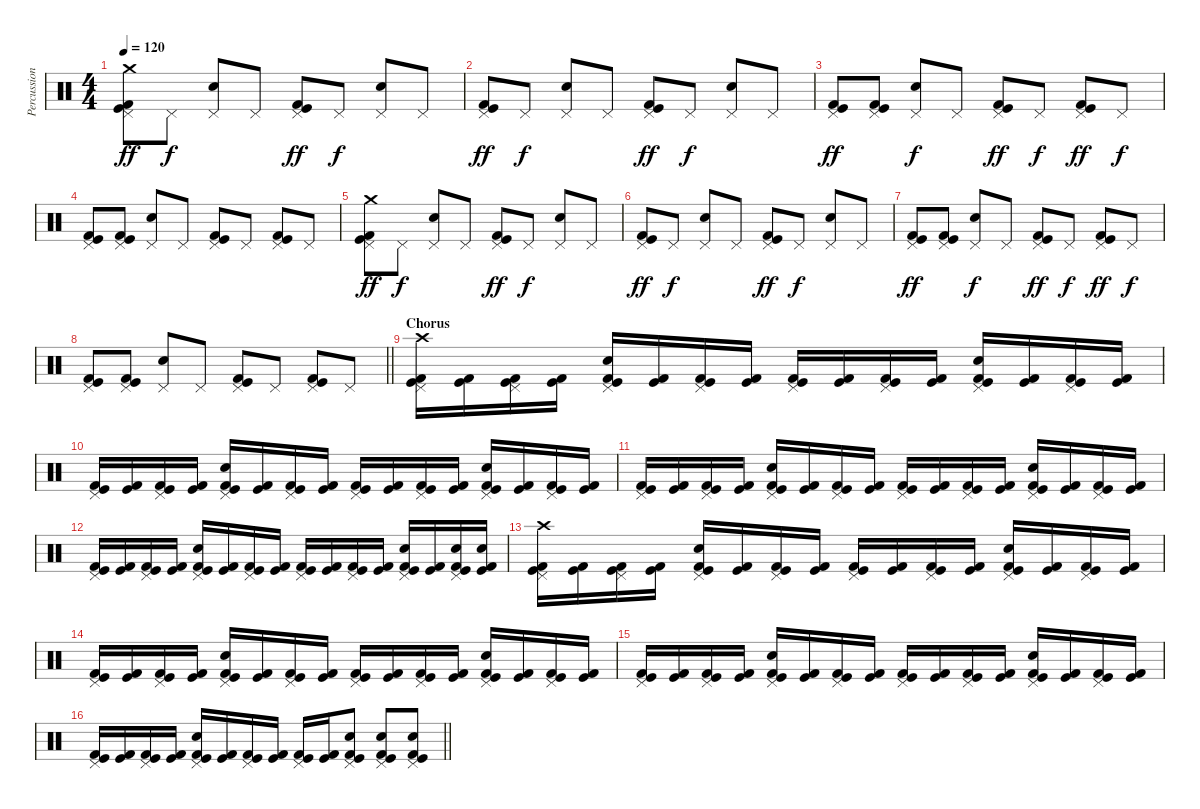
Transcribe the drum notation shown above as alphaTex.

\track ("Percussion" "Percussion") {instrument percussion}
\staff {score}
\articulation defaults
\ts (4 4)
\tempo 120
\clef neutral
\ks c
("Crash medium (hit)" "Pedal Hi-Hat (hit)" "Kick (hit)" "Kick (hit) 2").8{dy ff} "Pedal Hi-Hat (hit)".8{dy f} ("Pedal Hi-Hat (hit)" "Electric Snare (hit)").8 "Pedal Hi-Hat (hit)".8 ("Pedal Hi-Hat (hit)" "Kick (hit)" "Kick (hit) 2").8{dy ff} "Pedal Hi-Hat (hit)".8{dy f} ("Pedal Hi-Hat (hit)" "Electric Snare (hit)").8 "Pedal Hi-Hat (hit)".8 |
("Pedal Hi-Hat (hit)" "Kick (hit)" "Kick (hit) 2").8{dy ff} "Pedal Hi-Hat (hit)".8{dy f} ("Pedal Hi-Hat (hit)" "Electric Snare (hit)").8 "Pedal Hi-Hat (hit)".8 ("Pedal Hi-Hat (hit)" "Kick (hit)" "Kick (hit) 2").8{dy ff} "Pedal Hi-Hat (hit)".8{dy f} ("Pedal Hi-Hat (hit)" "Electric Snare (hit)").8 "Pedal Hi-Hat (hit)".8 |
("Pedal Hi-Hat (hit)" "Kick (hit)" "Kick (hit) 2").8{dy ff} ("Pedal Hi-Hat (hit)" "Kick (hit)" "Kick (hit) 2").8 ("Pedal Hi-Hat (hit)" "Electric Snare (hit)").8{dy f} "Pedal Hi-Hat (hit)".8 ("Pedal Hi-Hat (hit)" "Kick (hit)" "Kick (hit) 2").8{dy ff} "Pedal Hi-Hat (hit)".8{dy f} ("Pedal Hi-Hat (hit)" "Kick (hit)" "Kick (hit) 2").8{dy ff} "Pedal Hi-Hat (hit)".8{dy f} |
("Pedal Hi-Hat (hit)" "Kick (hit)" "Kick (hit) 2").8 ("Pedal Hi-Hat (hit)" "Kick (hit)" "Kick (hit) 2").8 ("Pedal Hi-Hat (hit)" "Electric Snare (hit)").8 "Pedal Hi-Hat (hit)".8 ("Pedal Hi-Hat (hit)" "Kick (hit)" "Kick (hit) 2").8 "Pedal Hi-Hat (hit)".8 ("Pedal Hi-Hat (hit)" "Kick (hit)" "Kick (hit) 2").8 "Pedal Hi-Hat (hit)".8 |
("Crash medium (hit)" "Pedal Hi-Hat (hit)" "Kick (hit)" "Kick (hit) 2").8{dy ff} "Pedal Hi-Hat (hit)".8{dy f} ("Pedal Hi-Hat (hit)" "Electric Snare (hit)").8 "Pedal Hi-Hat (hit)".8 ("Pedal Hi-Hat (hit)" "Kick (hit)" "Kick (hit) 2").8{dy ff} "Pedal Hi-Hat (hit)".8{dy f} ("Pedal Hi-Hat (hit)" "Electric Snare (hit)").8 "Pedal Hi-Hat (hit)".8 |
("Pedal Hi-Hat (hit)" "Kick (hit)" "Kick (hit) 2").8{dy ff} "Pedal Hi-Hat (hit)".8{dy f} ("Pedal Hi-Hat (hit)" "Electric Snare (hit)").8 "Pedal Hi-Hat (hit)".8 ("Pedal Hi-Hat (hit)" "Kick (hit)" "Kick (hit) 2").8{dy ff} "Pedal Hi-Hat (hit)".8{dy f} ("Pedal Hi-Hat (hit)" "Electric Snare (hit)").8 "Pedal Hi-Hat (hit)".8 |
("Pedal Hi-Hat (hit)" "Kick (hit)" "Kick (hit) 2").8{dy ff} ("Pedal Hi-Hat (hit)" "Kick (hit)" "Kick (hit) 2").8 ("Pedal Hi-Hat (hit)" "Electric Snare (hit)").8{dy f} "Pedal Hi-Hat (hit)".8 ("Pedal Hi-Hat (hit)" "Kick (hit)" "Kick (hit) 2").8{dy ff} "Pedal Hi-Hat (hit)".8{dy f} ("Pedal Hi-Hat (hit)" "Kick (hit)" "Kick (hit) 2").8{dy ff} "Pedal Hi-Hat (hit)".8{dy f} |
\barLineRight lightlight
("Pedal Hi-Hat (hit)" "Kick (hit)" "Kick (hit) 2").8 ("Pedal Hi-Hat (hit)" "Kick (hit)" "Kick (hit) 2").8 ("Pedal Hi-Hat (hit)" "Electric Snare (hit)").8 "Pedal Hi-Hat (hit)".8 ("Pedal Hi-Hat (hit)" "Kick (hit)" "Kick (hit) 2").8 "Pedal Hi-Hat (hit)".8 ("Pedal Hi-Hat (hit)" "Kick (hit)" "Kick (hit) 2").8 "Pedal Hi-Hat (hit)".8 |
\section ("" "Chorus")
("Pedal Hi-Hat (hit)" "Crash high (hit)" "Kick (hit)" "Kick (hit) 2").16 ("Kick (hit)" "Kick (hit) 2").16 ("Pedal Hi-Hat (hit)" "Kick (hit)" "Kick (hit) 2").16 ("Kick (hit)" "Kick (hit) 2").16 ("Pedal Hi-Hat (hit)" "Electric Snare (hit)" "Kick (hit)" "Kick (hit) 2").16 ("Kick (hit)" "Kick (hit) 2").16 ("Pedal Hi-Hat (hit)" "Kick (hit)" "Kick (hit) 2").16 ("Kick (hit)" "Kick (hit) 2").16 ("Pedal Hi-Hat (hit)" "Kick (hit)" "Kick (hit) 2").16 ("Kick (hit)" "Kick (hit) 2").16 ("Pedal Hi-Hat (hit)" "Kick (hit)" "Kick (hit) 2").16 ("Kick (hit)" "Kick (hit) 2").16 ("Pedal Hi-Hat (hit)" "Electric Snare (hit)" "Kick (hit)" "Kick (hit) 2").16 ("Kick (hit)" "Kick (hit) 2").16 ("Pedal Hi-Hat (hit)" "Kick (hit)" "Kick (hit) 2").16 ("Kick (hit)" "Kick (hit) 2").16 |
("Pedal Hi-Hat (hit)" "Kick (hit)" "Kick (hit) 2").16 ("Kick (hit)" "Kick (hit) 2").16 ("Pedal Hi-Hat (hit)" "Kick (hit)" "Kick (hit) 2").16 ("Kick (hit)" "Kick (hit) 2").16 ("Pedal Hi-Hat (hit)" "Electric Snare (hit)" "Kick (hit)" "Kick (hit) 2").16 ("Kick (hit)" "Kick (hit) 2").16 ("Pedal Hi-Hat (hit)" "Kick (hit)" "Kick (hit) 2").16 ("Kick (hit)" "Kick (hit) 2").16 ("Pedal Hi-Hat (hit)" "Kick (hit)" "Kick (hit) 2").16 ("Kick (hit)" "Kick (hit) 2").16 ("Pedal Hi-Hat (hit)" "Kick (hit)" "Kick (hit) 2").16 ("Kick (hit)" "Kick (hit) 2").16 ("Pedal Hi-Hat (hit)" "Electric Snare (hit)" "Kick (hit)" "Kick (hit) 2").16 ("Kick (hit)" "Kick (hit) 2").16 ("Pedal Hi-Hat (hit)" "Kick (hit)" "Kick (hit) 2").16 ("Kick (hit)" "Kick (hit) 2").16 |
("Pedal Hi-Hat (hit)" "Kick (hit)" "Kick (hit) 2").16 ("Kick (hit)" "Kick (hit) 2").16 ("Pedal Hi-Hat (hit)" "Kick (hit)" "Kick (hit) 2").16 ("Kick (hit)" "Kick (hit) 2").16 ("Pedal Hi-Hat (hit)" "Electric Snare (hit)" "Kick (hit)" "Kick (hit) 2").16 ("Kick (hit)" "Kick (hit) 2").16 ("Pedal Hi-Hat (hit)" "Kick (hit)" "Kick (hit) 2").16 ("Kick (hit)" "Kick (hit) 2").16 ("Pedal Hi-Hat (hit)" "Kick (hit)" "Kick (hit) 2").16 ("Kick (hit)" "Kick (hit) 2").16 ("Pedal Hi-Hat (hit)" "Kick (hit)" "Kick (hit) 2").16 ("Kick (hit)" "Kick (hit) 2").16 ("Pedal Hi-Hat (hit)" "Electric Snare (hit)" "Kick (hit)" "Kick (hit) 2").16 ("Kick (hit)" "Kick (hit) 2").16 ("Pedal Hi-Hat (hit)" "Kick (hit)" "Kick (hit) 2").16 ("Kick (hit)" "Kick (hit) 2").16 |
("Pedal Hi-Hat (hit)" "Kick (hit)" "Kick (hit) 2").16 ("Kick (hit)" "Kick (hit) 2").16 ("Pedal Hi-Hat (hit)" "Kick (hit)" "Kick (hit) 2").16 ("Kick (hit)" "Kick (hit) 2").16 ("Pedal Hi-Hat (hit)" "Electric Snare (hit)" "Kick (hit)" "Kick (hit) 2").16 ("Kick (hit)" "Kick (hit) 2").16 ("Pedal Hi-Hat (hit)" "Kick (hit)" "Kick (hit) 2").16 ("Kick (hit)" "Kick (hit) 2").16 ("Pedal Hi-Hat (hit)" "Kick (hit)" "Kick (hit) 2").16 ("Kick (hit)" "Kick (hit) 2").16 ("Pedal Hi-Hat (hit)" "Kick (hit)" "Kick (hit) 2").16 ("Kick (hit)" "Kick (hit) 2").16 ("Pedal Hi-Hat (hit)" "Electric Snare (hit)" "Kick (hit)" "Kick (hit) 2").16 ("Kick (hit)" "Kick (hit) 2").16 ("Pedal Hi-Hat (hit)" "Electric Snare (hit)" "Kick (hit)" "Kick (hit) 2").16 ("Electric Snare (hit)" "Kick (hit)" "Kick (hit) 2").16 |
("Pedal Hi-Hat (hit)" "Crash high (hit)" "Kick (hit)" "Kick (hit) 2").16 ("Kick (hit)" "Kick (hit) 2").16 ("Pedal Hi-Hat (hit)" "Kick (hit)" "Kick (hit) 2").16 ("Kick (hit)" "Kick (hit) 2").16 ("Pedal Hi-Hat (hit)" "Electric Snare (hit)" "Kick (hit)" "Kick (hit) 2").16 ("Kick (hit)" "Kick (hit) 2").16 ("Pedal Hi-Hat (hit)" "Kick (hit)" "Kick (hit) 2").16 ("Kick (hit)" "Kick (hit) 2").16 ("Pedal Hi-Hat (hit)" "Kick (hit)" "Kick (hit) 2").16 ("Kick (hit)" "Kick (hit) 2").16 ("Pedal Hi-Hat (hit)" "Kick (hit)" "Kick (hit) 2").16 ("Kick (hit)" "Kick (hit) 2").16 ("Pedal Hi-Hat (hit)" "Electric Snare (hit)" "Kick (hit)" "Kick (hit) 2").16 ("Kick (hit)" "Kick (hit) 2").16 ("Pedal Hi-Hat (hit)" "Kick (hit)" "Kick (hit) 2").16 ("Kick (hit)" "Kick (hit) 2").16 |
("Pedal Hi-Hat (hit)" "Kick (hit)" "Kick (hit) 2").16 ("Kick (hit)" "Kick (hit) 2").16 ("Pedal Hi-Hat (hit)" "Kick (hit)" "Kick (hit) 2").16 ("Kick (hit)" "Kick (hit) 2").16 ("Pedal Hi-Hat (hit)" "Electric Snare (hit)" "Kick (hit)" "Kick (hit) 2").16 ("Kick (hit)" "Kick (hit) 2").16 ("Pedal Hi-Hat (hit)" "Kick (hit)" "Kick (hit) 2").16 ("Kick (hit)" "Kick (hit) 2").16 ("Pedal Hi-Hat (hit)" "Kick (hit)" "Kick (hit) 2").16 ("Kick (hit)" "Kick (hit) 2").16 ("Pedal Hi-Hat (hit)" "Kick (hit)" "Kick (hit) 2").16 ("Kick (hit)" "Kick (hit) 2").16 ("Pedal Hi-Hat (hit)" "Electric Snare (hit)" "Kick (hit)" "Kick (hit) 2").16 ("Kick (hit)" "Kick (hit) 2").16 ("Pedal Hi-Hat (hit)" "Kick (hit)" "Kick (hit) 2").16 ("Kick (hit)" "Kick (hit) 2").16 |
("Pedal Hi-Hat (hit)" "Kick (hit)" "Kick (hit) 2").16 ("Kick (hit)" "Kick (hit) 2").16 ("Pedal Hi-Hat (hit)" "Kick (hit)" "Kick (hit) 2").16 ("Kick (hit)" "Kick (hit) 2").16 ("Pedal Hi-Hat (hit)" "Electric Snare (hit)" "Kick (hit)" "Kick (hit) 2").16 ("Kick (hit)" "Kick (hit) 2").16 ("Pedal Hi-Hat (hit)" "Kick (hit)" "Kick (hit) 2").16 ("Kick (hit)" "Kick (hit) 2").16 ("Pedal Hi-Hat (hit)" "Kick (hit)" "Kick (hit) 2").16 ("Kick (hit)" "Kick (hit) 2").16 ("Pedal Hi-Hat (hit)" "Kick (hit)" "Kick (hit) 2").16 ("Kick (hit)" "Kick (hit) 2").16 ("Pedal Hi-Hat (hit)" "Electric Snare (hit)" "Kick (hit)" "Kick (hit) 2").16 ("Kick (hit)" "Kick (hit) 2").16 ("Pedal Hi-Hat (hit)" "Kick (hit)" "Kick (hit) 2").16 ("Kick (hit)" "Kick (hit) 2").16 |
\barLineRight lightlight
("Pedal Hi-Hat (hit)" "Kick (hit)" "Kick (hit) 2").16 ("Kick (hit)" "Kick (hit) 2").16 ("Pedal Hi-Hat (hit)" "Kick (hit)" "Kick (hit) 2").16 ("Kick (hit)" "Kick (hit) 2").16 ("Pedal Hi-Hat (hit)" "Electric Snare (hit)" "Kick (hit)" "Kick (hit) 2").16 ("Kick (hit)" "Kick (hit) 2").16 ("Pedal Hi-Hat (hit)" "Kick (hit)" "Kick (hit) 2").16 ("Kick (hit)" "Kick (hit) 2").16 ("Pedal Hi-Hat (hit)" "Kick (hit)" "Kick (hit) 2").16 ("Kick (hit)" "Kick (hit) 2").16 ("Pedal Hi-Hat (hit)" "Electric Snare (hit)" "Kick (hit)" "Kick (hit) 2").8 ("Pedal Hi-Hat (hit)" "Electric Snare (hit)" "Kick (hit)" "Kick (hit) 2").8 ("Pedal Hi-Hat (hit)" "Electric Snare (hit)" "Kick (hit)" "Kick (hit) 2").8
